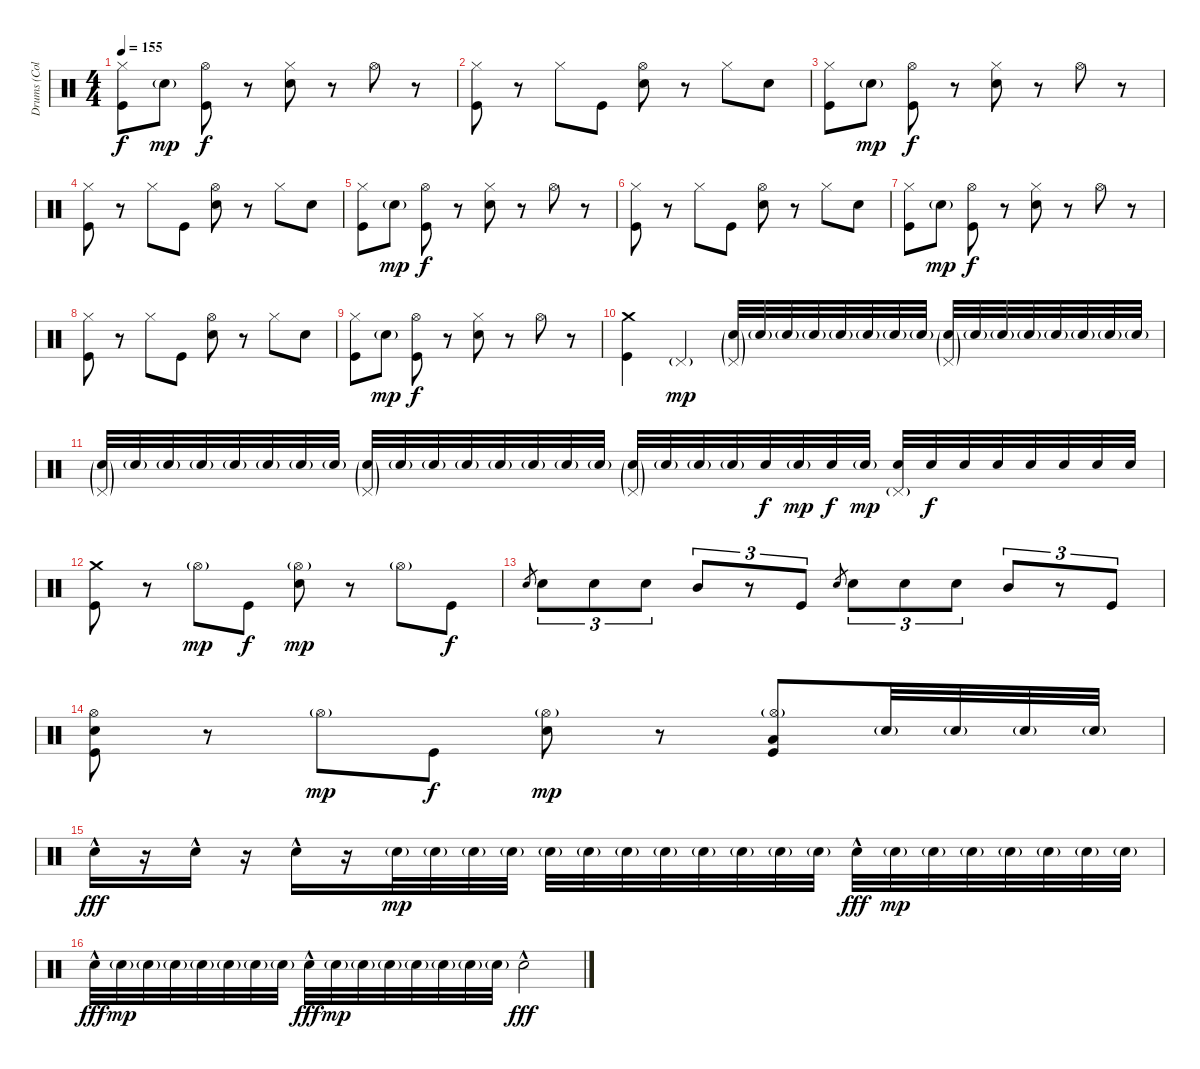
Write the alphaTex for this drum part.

\track ("Drums (Collins)" "Drums (Col") {instrument percussion}
\staff {score}
\articulation defaults
\ts (4 4)
\tempo 155
\clef neutral
\ks c
("Hi-Hat (closed)" "Kick (hit)").8{dy f} "Snare (hit) 2"{g}.8{dy mp} ("Hi-Hat (open)" "Kick (hit)").8{dy f} r.8 ("Hi-Hat (closed)" "Snare (hit) 2").8 r.8 "Hi-Hat (open)".8 r.8 |
("Hi-Hat (closed)" "Kick (hit)").8 r.8 "Hi-Hat (closed)".8 "Kick (hit)".8 ("Hi-Hat (open)" "Snare (hit) 2").8 r.8 "Hi-Hat (closed)".8 "Snare (hit) 2".8 |
("Hi-Hat (closed)" "Kick (hit)").8 "Snare (hit) 2"{g}.8{dy mp} ("Hi-Hat (open)" "Kick (hit)").8{dy f} r.8 ("Hi-Hat (closed)" "Snare (hit) 2").8 r.8 "Hi-Hat (open)".8 r.8 |
("Hi-Hat (closed)" "Kick (hit)").8 r.8 "Hi-Hat (closed)".8 "Kick (hit)".8 ("Hi-Hat (open)" "Snare (hit) 2").8 r.8 "Hi-Hat (closed)".8 "Snare (hit) 2".8 |
("Hi-Hat (closed)" "Kick (hit)").8 "Snare (hit) 2"{g}.8{dy mp} ("Hi-Hat (open)" "Kick (hit)").8{dy f} r.8 ("Hi-Hat (closed)" "Snare (hit) 2").8 r.8 "Hi-Hat (open)".8 r.8 |
("Hi-Hat (closed)" "Kick (hit)").8 r.8 "Hi-Hat (closed)".8 "Kick (hit)".8 ("Hi-Hat (open)" "Snare (hit) 2").8 r.8 "Hi-Hat (closed)".8 "Snare (hit) 2".8 |
("Hi-Hat (closed)" "Kick (hit)").8 "Snare (hit) 2"{g}.8{dy mp} ("Hi-Hat (open)" "Kick (hit)").8{dy f} r.8 ("Hi-Hat (closed)" "Snare (hit) 2").8 r.8 "Hi-Hat (open)".8 r.8 |
("Hi-Hat (closed)" "Kick (hit)").8 r.8 "Hi-Hat (closed)".8 "Kick (hit)".8 ("Hi-Hat (open)" "Snare (hit) 2").8 r.8 "Hi-Hat (closed)".8 "Snare (hit) 2".8 |
("Hi-Hat (closed)" "Kick (hit)").8 "Snare (hit) 2"{g}.8{dy mp} ("Hi-Hat (open)" "Kick (hit)").8{dy f} r.8 ("Hi-Hat (closed)" "Snare (hit) 2").8 r.8 "Hi-Hat (open)".8 r.8 |
("Crash medium (hit)" "Kick (hit)").4 "Pedal Hi-Hat (hit)"{g}.4{dy mp} ("Pedal Hi-Hat (hit)"{g} "Snare (hit) 2"{g}).32 "Snare (hit) 2"{g}.32 "Snare (hit) 2"{g}.32 "Snare (hit) 2"{g}.32 "Snare (hit) 2"{g}.32 "Snare (hit) 2"{g}.32 "Snare (hit) 2"{g}.32 "Snare (hit) 2"{g}.32 ("Pedal Hi-Hat (hit)"{g} "Snare (hit) 2"{g}).32 "Snare (hit) 2"{g}.32 "Snare (hit) 2"{g}.32 "Snare (hit) 2"{g}.32 "Snare (hit) 2"{g}.32 "Snare (hit) 2"{g}.32 "Snare (hit) 2"{g}.32 "Snare (hit) 2"{g}.32 |
("Pedal Hi-Hat (hit)"{g} "Snare (hit) 2"{g}).32 "Snare (hit) 2"{g}.32 "Snare (hit) 2"{g}.32 "Snare (hit) 2"{g}.32 "Snare (hit) 2"{g}.32 "Snare (hit) 2"{g}.32 "Snare (hit) 2"{g}.32 "Snare (hit) 2"{g}.32 ("Pedal Hi-Hat (hit)"{g} "Snare (hit) 2"{g}).32 "Snare (hit) 2"{g}.32 "Snare (hit) 2"{g}.32 "Snare (hit) 2"{g}.32 "Snare (hit) 2"{g}.32 "Snare (hit) 2"{g}.32 "Snare (hit) 2"{g}.32 "Snare (hit) 2"{g}.32 ("Pedal Hi-Hat (hit)"{g} "Snare (hit) 2"{g}).32 "Snare (hit) 2"{g}.32 "Snare (hit) 2"{g}.32 "Snare (hit) 2"{g}.32 "Snare (hit) 2".32{dy f} "Snare (hit) 2"{g}.32{dy mp} "Snare (hit) 2".32{dy f} "Snare (hit) 2"{g}.32{dy mp} ("Pedal Hi-Hat (hit)"{g} "Snare (hit) 2").32 "Snare (hit) 2".32{dy f} "Snare (hit) 2".32 "Snare (hit) 2".32 "Snare (hit) 2".32 "Snare (hit) 2".32 "Snare (hit) 2".32 "Snare (hit) 2".32 |
("Crash medium (hit)" "Kick (hit)").8 r.8 "Hi-Hat (open)"{g}.8{dy mp} "Kick (hit)".8{dy f} ("Hi-Hat (open)"{g} "Snare (hit) 2").8{dy mp} r.8 "Hi-Hat (open)"{g}.8 "Kick (hit)".8{dy f} |
"Snare (hit) 2".8{gr} "Snare (hit) 2".8{tu (3 2)} "Snare (hit) 2".8{tu (3 2)} "Snare (hit) 2".8{tu (3 2)} "Mid Tom (hit)".8{tu (3 2)} r.8{tu (3 2)} "Kick (hit)".8{tu (3 2)} "Snare (hit) 2".8{gr} "Snare (hit) 2".8{tu (3 2)} "Snare (hit) 2".8{tu (3 2)} "Snare (hit) 2".8{tu (3 2)} "Mid Tom (hit)".8{tu (3 2)} r.8{tu (3 2)} "Kick (hit)".8{tu (3 2)} |
("Hi-Hat (open)" "Snare (hit) 2" "Kick (hit)").8 r.8 "Hi-Hat (open)"{g}.8{dy mp} "Kick (hit)".8{dy f} ("Hi-Hat (open)"{g} "Snare (hit) 2").8{dy mp} r.8 ("Hi-Hat (open)"{g} "Low Floor Tom (hit)" "Kick (hit)").8 "Snare (hit) 2"{g}.32 "Snare (hit) 2"{g}.32 "Snare (hit) 2"{g}.32 "Snare (hit) 2"{g}.32 |
"Snare (hit) 2"{hac}.16{dy fff} r.16 "Snare (hit) 2"{hac}.16 r.16 "Snare (hit) 2"{hac}.16 r.16 "Snare (hit) 2"{g}.32{dy mp} "Snare (hit) 2"{g}.32 "Snare (hit) 2"{g}.32 "Snare (hit) 2"{g}.32 "Snare (hit) 2"{g}.32 "Snare (hit) 2"{g}.32 "Snare (hit) 2"{g}.32 "Snare (hit) 2"{g}.32 "Snare (hit) 2"{g}.32 "Snare (hit) 2"{g}.32 "Snare (hit) 2"{g}.32 "Snare (hit) 2"{g}.32 "Snare (hit) 2"{hac}.32{dy fff} "Snare (hit) 2"{g}.32{dy mp} "Snare (hit) 2"{g}.32 "Snare (hit) 2"{g}.32 "Snare (hit) 2"{g}.32 "Snare (hit) 2"{g}.32 "Snare (hit) 2"{g}.32 "Snare (hit) 2"{g}.32 |
"Snare (hit) 2"{hac}.32{dy fff} "Snare (hit) 2"{g}.32{dy mp} "Snare (hit) 2"{g}.32 "Snare (hit) 2"{g}.32 "Snare (hit) 2"{g}.32 "Snare (hit) 2"{g}.32 "Snare (hit) 2"{g}.32 "Snare (hit) 2"{g}.32 "Snare (hit) 2"{hac}.32{dy fff} "Snare (hit) 2"{g}.32{dy mp} "Snare (hit) 2"{g}.32 "Snare (hit) 2"{g}.32 "Snare (hit) 2"{g}.32 "Snare (hit) 2"{g}.32 "Snare (hit) 2"{g}.32 "Snare (hit) 2"{g}.32 "Snare (hit) 2"{hac}.2{dy fff}
